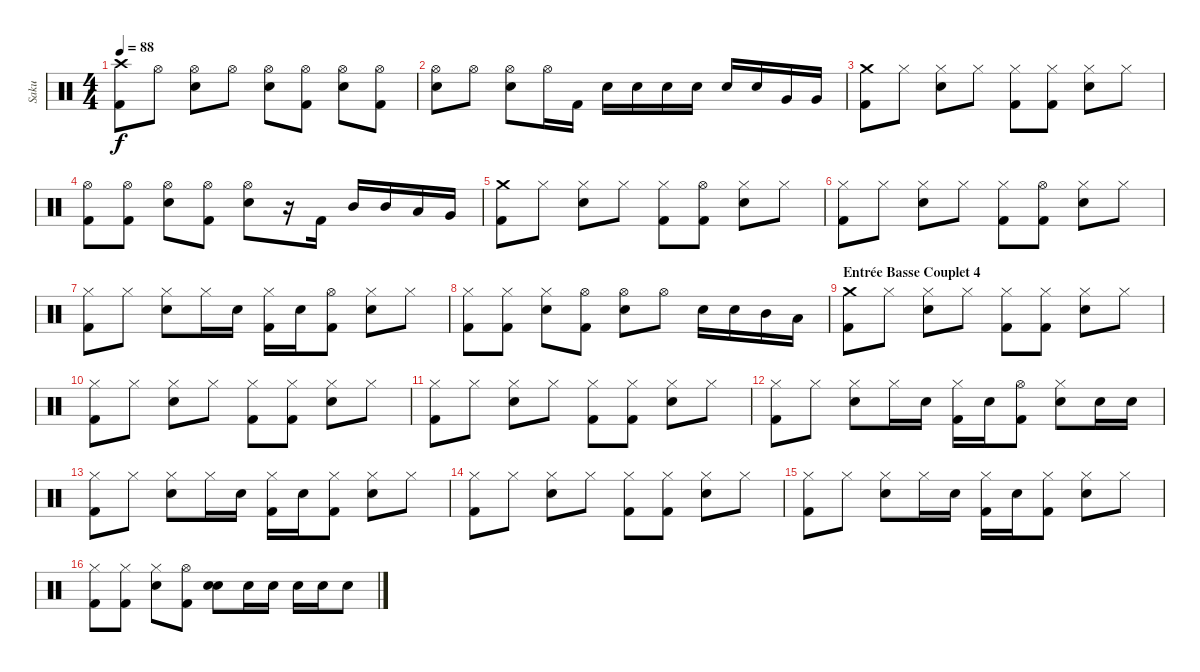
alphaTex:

\track ("Saku" "Saku") {instrument percussion}
\staff {score}
\articulation defaults
\ts (4 4)
\tempo 88
\clef neutral
\ks c
("Crash high (hit)" "Kick (hit) 2").8{dy f} "Hi-Hat (open)".8 ("Hi-Hat (open)" "Electric Snare (hit)").8 "Hi-Hat (open)".8 ("Hi-Hat (open)" "Electric Snare (hit)").8 ("Hi-Hat (open)" "Kick (hit) 2").8 ("Hi-Hat (open)" "Electric Snare (hit)").8 ("Hi-Hat (open)" "Kick (hit) 2").8 |
("Hi-Hat (open)" "Electric Snare (hit)").8 "Hi-Hat (open)".8 ("Hi-Hat (open)" "Electric Snare (hit)").8 "Hi-Hat (open)".16 "Kick (hit) 2".16 "Electric Snare (hit)".16 "Electric Snare (hit)".16 "Electric Snare (hit)".16 "Electric Snare (hit)".16 "Electric Snare (hit)".16 "Electric Snare (hit)".16 "Very Low Tom (hit)".16 "Very Low Tom (hit)".16 |
("Crash medium (hit)" "Kick (hit) 2").8 "Hi-Hat (closed)".8 ("Hi-Hat (closed)" "Electric Snare (hit)").8 "Hi-Hat (closed)".8 ("Hi-Hat (closed)" "Kick (hit) 2").8 ("Hi-Hat (closed)" "Kick (hit) 2").8 ("Hi-Hat (closed)" "Electric Snare (hit)").8 "Hi-Hat (closed)".8 |
("Hi-Hat (open)" "Kick (hit) 2").8 ("Hi-Hat (open)" "Kick (hit) 2").8 ("Hi-Hat (open)" "Electric Snare (hit)").8 ("Hi-Hat (open)" "Kick (hit) 2").8 ("Hi-Hat (open)" "Electric Snare (hit)").8 r.16 "Kick (hit) 2".16 "Mid Tom (hit)".16 "Mid Tom (hit)".16 "Low Tom (hit)".16 "Very Low Tom (hit)".16 |
("Crash medium (hit)" "Kick (hit) 2").8 "Hi-Hat (closed)".8 ("Hi-Hat (closed)" "Electric Snare (hit)").8 "Hi-Hat (closed)".8 ("Hi-Hat (closed)" "Kick (hit) 2").8 ("Hi-Hat (open)" "Kick (hit) 2").8 ("Hi-Hat (closed)" "Electric Snare (hit)").8 "Hi-Hat (closed)".8 |
("Hi-Hat (closed)" "Kick (hit) 2").8 "Hi-Hat (closed)".8 ("Hi-Hat (closed)" "Electric Snare (hit)").8 "Hi-Hat (closed)".8 ("Hi-Hat (closed)" "Kick (hit) 2").8 ("Hi-Hat (open)" "Kick (hit) 2").8 ("Hi-Hat (closed)" "Electric Snare (hit)").8 "Hi-Hat (closed)".8 |
("Hi-Hat (closed)" "Kick (hit) 2").8 "Hi-Hat (closed)".8 ("Hi-Hat (closed)" "Electric Snare (hit)").8 "Hi-Hat (closed)".16 "Electric Snare (hit)".16 ("Hi-Hat (closed)" "Kick (hit) 2").16 "Electric Snare (hit)".16 ("Hi-Hat (open)" "Kick (hit) 2").8 ("Hi-Hat (closed)" "Electric Snare (hit)").8 "Hi-Hat (closed)".8 |
("Hi-Hat (closed)" "Kick (hit) 2").8 ("Hi-Hat (closed)" "Kick (hit) 2").8 ("Hi-Hat (closed)" "Electric Snare (hit)").8 ("Hi-Hat (open)" "Kick (hit) 2").8 ("Hi-Hat (open)" "Electric Snare (hit)").8 "Hi-Hat (open)".8 "Electric Snare (hit)".16 "Electric Snare (hit)".16 "Mid Tom (hit)".16 "Low Tom (hit)".16 |
\section ("" "Entrée Basse Couplet 4")
("Crash medium (hit)" "Kick (hit) 2").8 "Hi-Hat (closed)".8 ("Hi-Hat (closed)" "Electric Snare (hit)").8 "Hi-Hat (closed)".8 ("Hi-Hat (closed)" "Kick (hit) 2").8 ("Hi-Hat (closed)" "Kick (hit) 2").8 ("Hi-Hat (closed)" "Electric Snare (hit)").8 "Hi-Hat (closed)".8 |
("Hi-Hat (closed)" "Kick (hit) 2").8 "Hi-Hat (closed)".8 ("Hi-Hat (closed)" "Electric Snare (hit)").8 "Hi-Hat (closed)".8 ("Hi-Hat (closed)" "Kick (hit) 2").8 ("Hi-Hat (closed)" "Kick (hit) 2").8 ("Hi-Hat (closed)" "Electric Snare (hit)").8 "Hi-Hat (closed)".8 |
("Hi-Hat (closed)" "Kick (hit) 2").8 "Hi-Hat (closed)".8 ("Hi-Hat (closed)" "Electric Snare (hit)").8 "Hi-Hat (closed)".8 ("Hi-Hat (closed)" "Kick (hit) 2").8 ("Hi-Hat (closed)" "Kick (hit) 2").8 ("Hi-Hat (closed)" "Electric Snare (hit)").8 "Hi-Hat (closed)".8 |
("Hi-Hat (closed)" "Kick (hit) 2").8 "Hi-Hat (closed)".8 ("Hi-Hat (closed)" "Electric Snare (hit)").8 "Hi-Hat (closed)".16 "Electric Snare (hit)".16 ("Hi-Hat (closed)" "Kick (hit) 2").16 "Electric Snare (hit)".16 ("Hi-Hat (open)" "Kick (hit) 2").8 ("Hi-Hat (closed)" "Electric Snare (hit)").8 "Electric Snare (hit)".16 "Electric Snare (hit)".16 |
("Hi-Hat (closed)" "Kick (hit) 2").8 "Hi-Hat (closed)".8 ("Hi-Hat (closed)" "Electric Snare (hit)").8 "Hi-Hat (closed)".16 "Electric Snare (hit)".16 ("Hi-Hat (closed)" "Kick (hit) 2").16 "Electric Snare (hit)".16 ("Hi-Hat (closed)" "Kick (hit) 2").8 ("Hi-Hat (closed)" "Electric Snare (hit)").8 "Hi-Hat (closed)".8 |
("Hi-Hat (closed)" "Kick (hit) 2").8 "Hi-Hat (closed)".8 ("Hi-Hat (closed)" "Electric Snare (hit)").8 "Hi-Hat (closed)".8 ("Hi-Hat (closed)" "Kick (hit) 2").8 ("Hi-Hat (closed)" "Kick (hit) 2").8 ("Hi-Hat (closed)" "Electric Snare (hit)").8 "Hi-Hat (closed)".8 |
("Hi-Hat (closed)" "Kick (hit) 2").8 "Hi-Hat (closed)".8 ("Hi-Hat (closed)" "Electric Snare (hit)").8 "Hi-Hat (closed)".16 "Electric Snare (hit)".16 ("Hi-Hat (closed)" "Kick (hit) 2").16 "Electric Snare (hit)".16 ("Hi-Hat (closed)" "Kick (hit) 2").8 ("Hi-Hat (closed)" "Electric Snare (hit)").8 "Hi-Hat (closed)".8 |
("Hi-Hat (closed)" "Kick (hit) 2").8 ("Hi-Hat (closed)" "Kick (hit) 2").8 ("Hi-Hat (closed)" "Electric Snare (hit)").8 ("Hi-Hat (open)" "Kick (hit) 2").8 ("Electric Snare (hit)" "Electric Snare (hit)").8{bu 60} "Electric Snare (hit)".16 "Electric Snare (hit)".16 "Electric Snare (hit)".16 "Electric Snare (hit)".16 "Electric Snare (hit)".8
